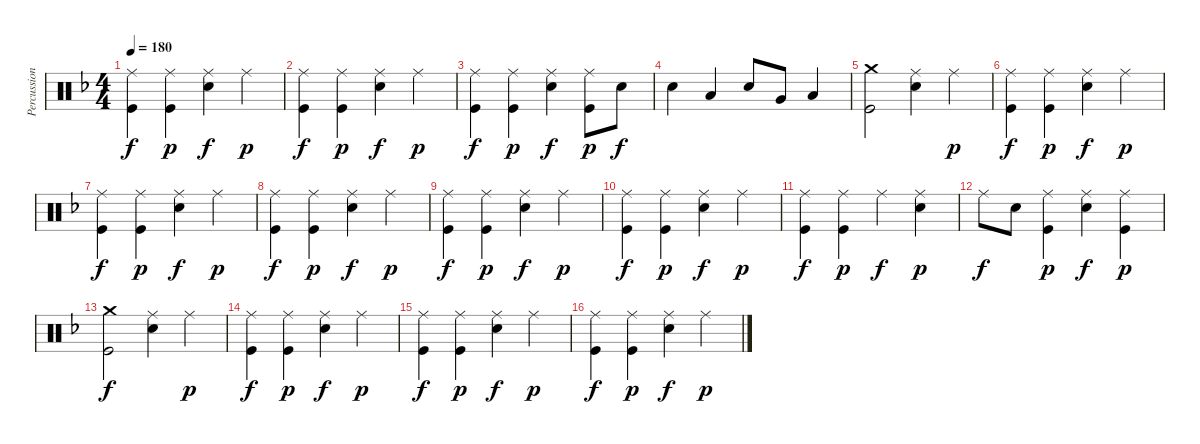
\track ("Percussion" "Percussion") {instrument percussion}
\staff {score}
\articulation defaults
\ts (4 4)
\tempo 180
\clef neutral
\ks f
("Ride (middle)" "Kick (hit)").4{dy f} ("Ride (middle)" "Kick (hit)").4{dy p} ("Ride (middle)" "Snare (hit) 2").4{dy f} "Ride (middle)".4{dy p} |
("Ride (middle)" "Kick (hit)").4{dy f} ("Ride (middle)" "Kick (hit)").4{dy p} ("Ride (middle)" "Snare (hit) 2").4{dy f} "Ride (middle)".4{dy p} |
("Ride (middle)" "Kick (hit)").4{dy f} ("Ride (middle)" "Kick (hit)").4{dy p} ("Ride (middle)" "Snare (hit) 2").4{dy f} ("Ride (middle)" "Kick (hit)").8{dy p} "Snare (hit) 2".8{dy f} |
"Snare (hit) 2".4 "Low Tom (hit)".4 "Snare (hit) 2".8 "Very Low Tom (hit)".8 "Low Floor Tom (hit)".4 |
("Crash medium (hit)" "Kick (hit)").2 ("Ride (middle)" "Snare (hit) 2").4 "Ride (middle)".4{dy p} |
("Ride (middle)" "Kick (hit)").4{dy f} ("Ride (middle)" "Kick (hit)").4{dy p} ("Ride (middle)" "Snare (hit) 2").4{dy f} "Ride (middle)".4{dy p} |
("Ride (middle)" "Kick (hit)").4{dy f} ("Ride (middle)" "Kick (hit)").4{dy p} ("Ride (middle)" "Snare (hit) 2").4{dy f} "Ride (middle)".4{dy p} |
("Ride (middle)" "Kick (hit)").4{dy f} ("Ride (middle)" "Kick (hit)").4{dy p} ("Ride (middle)" "Snare (hit) 2").4{dy f} "Ride (middle)".4{dy p} |
("Ride (middle)" "Kick (hit)").4{dy f} ("Ride (middle)" "Kick (hit)").4{dy p} ("Ride (middle)" "Snare (hit) 2").4{dy f} "Ride (middle)".4{dy p} |
("Ride (middle)" "Kick (hit)").4{dy f} ("Ride (middle)" "Kick (hit)").4{dy p} ("Ride (middle)" "Snare (hit) 2").4{dy f} "Ride (middle)".4{dy p} |
("Ride (middle)" "Kick (hit)").4{dy f} ("Ride (middle)" "Kick (hit)").4{dy p} "Ride (middle)".4{dy f} ("Ride (middle)" "Snare (hit) 2").4{dy p} |
"Ride (middle)".8{dy f} "Snare (hit) 2".8 ("Ride (middle)" "Kick (hit)").4{dy p} ("Ride (middle)" "Snare (hit) 2").4{dy f} ("Ride (middle)" "Kick (hit)").4{dy p} |
("Crash medium (hit)" "Kick (hit)").2{dy f} ("Ride (middle)" "Snare (hit) 2").4 "Ride (middle)".4{dy p} |
("Ride (middle)" "Kick (hit)").4{dy f} ("Ride (middle)" "Kick (hit)").4{dy p} ("Ride (middle)" "Snare (hit) 2").4{dy f} "Ride (middle)".4{dy p} |
("Ride (middle)" "Kick (hit)").4{dy f} ("Ride (middle)" "Kick (hit)").4{dy p} ("Ride (middle)" "Snare (hit) 2").4{dy f} "Ride (middle)".4{dy p} |
("Ride (middle)" "Kick (hit)").4{dy f} ("Ride (middle)" "Kick (hit)").4{dy p} ("Ride (middle)" "Snare (hit) 2").4{dy f} "Ride (middle)".4{dy p}
